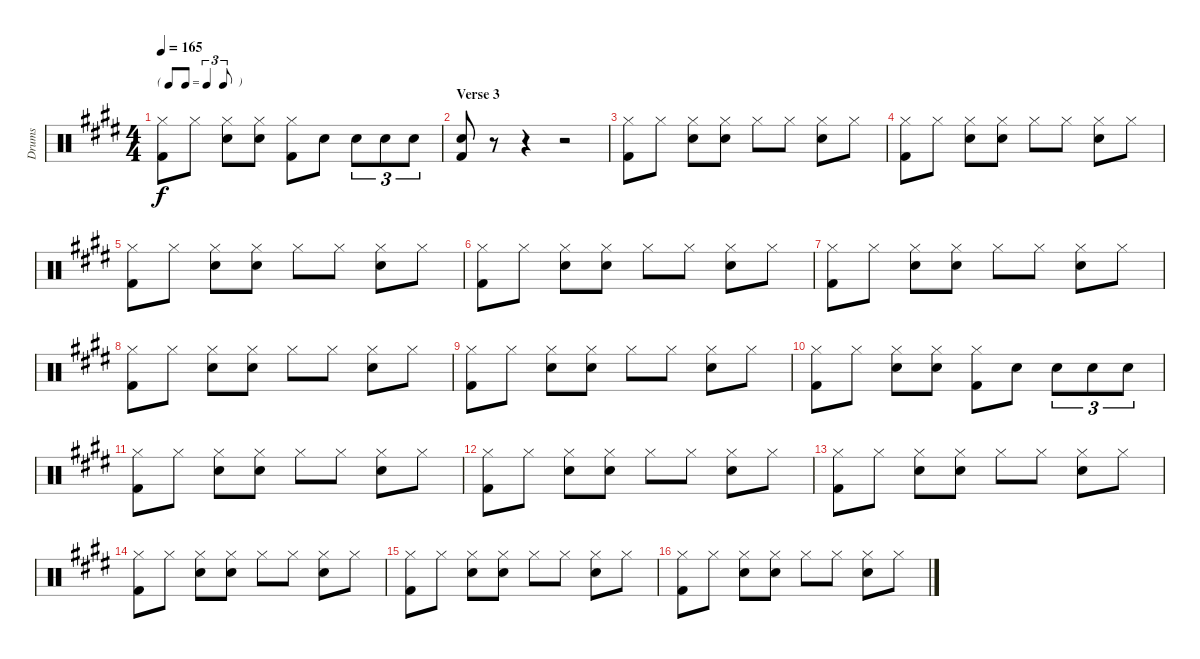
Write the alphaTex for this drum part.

\track ("Drums" "Drums") {instrument percussion}
\staff {score}
\articulation defaults
\ts (4 4)
\tf triplet8th
\tempo 165
\clef neutral
\ks e
("Hi-Hat (closed)" "Kick (hit) 2").8{dy f} "Hi-Hat (closed)".8 ("Hi-Hat (closed)" "Snare (hit) 2").8 ("Hi-Hat (closed)" "Snare (hit) 2").8 ("Hi-Hat (closed)" "Kick (hit) 2").8 "Snare (hit) 2".8 "Snare (hit) 2".8{tu (3 2)} "Snare (hit) 2".8{tu (3 2)} "Snare (hit) 2".8{tu (3 2)} |
\section ("" "Verse 3")
("Snare (hit) 2" "Kick (hit) 2").8 r.8 r.4 r.2 |
("Hi-Hat (closed)" "Kick (hit) 2").8 "Hi-Hat (closed)".8 ("Hi-Hat (closed)" "Snare (hit) 2").8 ("Hi-Hat (closed)" "Snare (hit) 2").8 "Hi-Hat (closed)".8 "Hi-Hat (closed)".8 ("Hi-Hat (closed)" "Snare (hit) 2").8 "Hi-Hat (closed)".8 |
("Hi-Hat (closed)" "Kick (hit) 2").8 "Hi-Hat (closed)".8 ("Hi-Hat (closed)" "Snare (hit) 2").8 ("Hi-Hat (closed)" "Snare (hit) 2").8 "Hi-Hat (closed)".8 "Hi-Hat (closed)".8 ("Hi-Hat (closed)" "Snare (hit) 2").8 "Hi-Hat (closed)".8 |
("Hi-Hat (closed)" "Kick (hit) 2").8 "Hi-Hat (closed)".8 ("Hi-Hat (closed)" "Snare (hit) 2").8 ("Hi-Hat (closed)" "Snare (hit) 2").8 "Hi-Hat (closed)".8 "Hi-Hat (closed)".8 ("Hi-Hat (closed)" "Snare (hit) 2").8 "Hi-Hat (closed)".8 |
("Hi-Hat (closed)" "Kick (hit) 2").8 "Hi-Hat (closed)".8 ("Hi-Hat (closed)" "Snare (hit) 2").8 ("Hi-Hat (closed)" "Snare (hit) 2").8 "Hi-Hat (closed)".8 "Hi-Hat (closed)".8 ("Hi-Hat (closed)" "Snare (hit) 2").8 "Hi-Hat (closed)".8 |
("Hi-Hat (closed)" "Kick (hit) 2").8 "Hi-Hat (closed)".8 ("Hi-Hat (closed)" "Snare (hit) 2").8 ("Hi-Hat (closed)" "Snare (hit) 2").8 "Hi-Hat (closed)".8 "Hi-Hat (closed)".8 ("Hi-Hat (closed)" "Snare (hit) 2").8 "Hi-Hat (closed)".8 |
("Hi-Hat (closed)" "Kick (hit) 2").8 "Hi-Hat (closed)".8 ("Hi-Hat (closed)" "Snare (hit) 2").8 ("Hi-Hat (closed)" "Snare (hit) 2").8 "Hi-Hat (closed)".8 "Hi-Hat (closed)".8 ("Hi-Hat (closed)" "Snare (hit) 2").8 "Hi-Hat (closed)".8 |
("Hi-Hat (closed)" "Kick (hit) 2").8 "Hi-Hat (closed)".8 ("Hi-Hat (closed)" "Snare (hit) 2").8 ("Hi-Hat (closed)" "Snare (hit) 2").8 "Hi-Hat (closed)".8 "Hi-Hat (closed)".8 ("Hi-Hat (closed)" "Snare (hit) 2").8 "Hi-Hat (closed)".8 |
("Hi-Hat (closed)" "Kick (hit) 2").8 "Hi-Hat (closed)".8 ("Hi-Hat (closed)" "Snare (hit) 2").8 ("Hi-Hat (closed)" "Snare (hit) 2").8 ("Hi-Hat (closed)" "Kick (hit) 2").8 "Snare (hit) 2".8 "Snare (hit) 2".8{tu (3 2)} "Snare (hit) 2".8{tu (3 2)} "Snare (hit) 2".8{tu (3 2)} |
("Hi-Hat (closed)" "Kick (hit) 2").8 "Hi-Hat (closed)".8 ("Hi-Hat (closed)" "Snare (hit) 2").8 ("Hi-Hat (closed)" "Snare (hit) 2").8 "Hi-Hat (closed)".8 "Hi-Hat (closed)".8 ("Hi-Hat (closed)" "Snare (hit) 2").8 "Hi-Hat (closed)".8 |
("Hi-Hat (closed)" "Kick (hit) 2").8 "Hi-Hat (closed)".8 ("Hi-Hat (closed)" "Snare (hit) 2").8 ("Hi-Hat (closed)" "Snare (hit) 2").8 "Hi-Hat (closed)".8 "Hi-Hat (closed)".8 ("Hi-Hat (closed)" "Snare (hit) 2").8 "Hi-Hat (closed)".8 |
("Hi-Hat (closed)" "Kick (hit) 2").8 "Hi-Hat (closed)".8 ("Hi-Hat (closed)" "Snare (hit) 2").8 ("Hi-Hat (closed)" "Snare (hit) 2").8 "Hi-Hat (closed)".8 "Hi-Hat (closed)".8 ("Hi-Hat (closed)" "Snare (hit) 2").8 "Hi-Hat (closed)".8 |
("Hi-Hat (closed)" "Kick (hit) 2").8 "Hi-Hat (closed)".8 ("Hi-Hat (closed)" "Snare (hit) 2").8 ("Hi-Hat (closed)" "Snare (hit) 2").8 "Hi-Hat (closed)".8 "Hi-Hat (closed)".8 ("Hi-Hat (closed)" "Snare (hit) 2").8 "Hi-Hat (closed)".8 |
("Hi-Hat (closed)" "Kick (hit) 2").8 "Hi-Hat (closed)".8 ("Hi-Hat (closed)" "Snare (hit) 2").8 ("Hi-Hat (closed)" "Snare (hit) 2").8 "Hi-Hat (closed)".8 "Hi-Hat (closed)".8 ("Hi-Hat (closed)" "Snare (hit) 2").8 "Hi-Hat (closed)".8 |
("Hi-Hat (closed)" "Kick (hit) 2").8 "Hi-Hat (closed)".8 ("Hi-Hat (closed)" "Snare (hit) 2").8 ("Hi-Hat (closed)" "Snare (hit) 2").8 "Hi-Hat (closed)".8 "Hi-Hat (closed)".8 ("Hi-Hat (closed)" "Snare (hit) 2").8 "Hi-Hat (closed)".8
